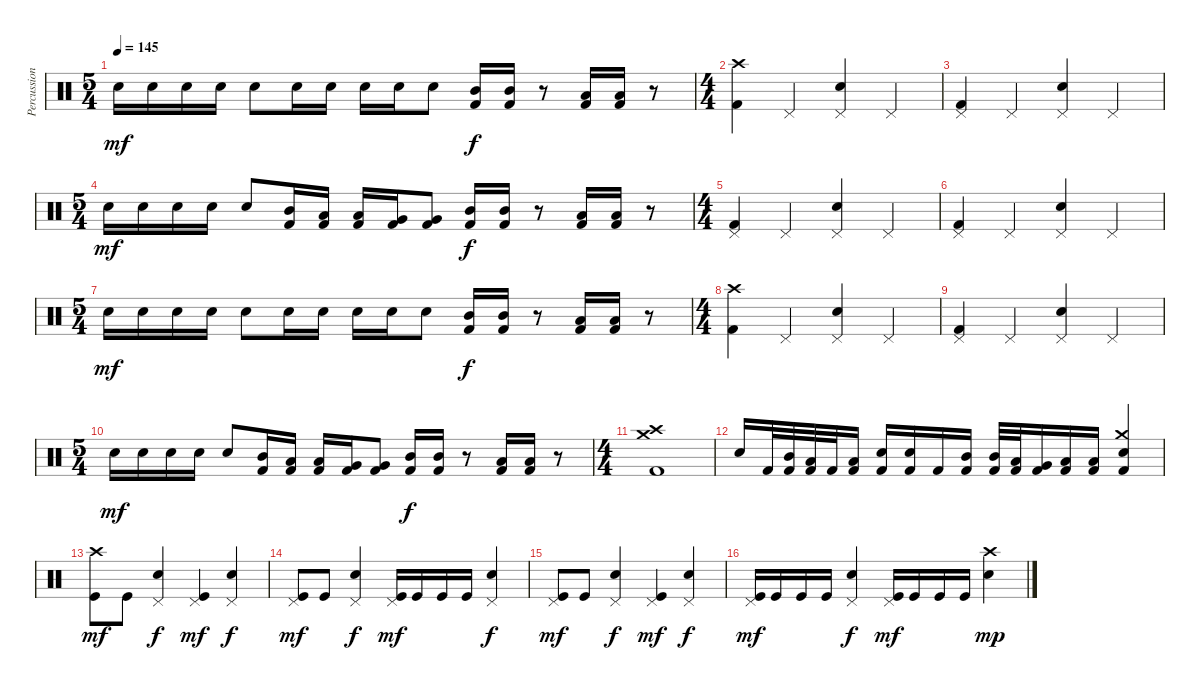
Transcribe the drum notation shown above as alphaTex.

\track ("Percussion" "Percussion") {instrument percussion}
\staff {score}
\articulation defaults
\ts (5 4)
\tempo 145
\clef neutral
\ks c "Snare (hit) 2".16{dy mf} "Snare (hit) 2".16 "Snare (hit) 2".16 "Snare (hit) 2".16 "Snare (hit) 2".8 "Snare (hit) 2".16 "Snare (hit) 2".16 "Snare (hit) 2".16 "Snare (hit) 2".16 "Snare (hit) 2".8
("Kick (hit) 2" "Mid Tom (hit)").16{dy f} ("Kick (hit) 2" "Mid Tom (hit)").16 r.8 ("Kick (hit) 2" "Low Tom (hit)").16 ("Kick (hit) 2" "Low Tom (hit)").16 r.8 |
\ts (4 4)
("Crash high (hit)" "Kick (hit) 2").4 "Pedal Hi-Hat (hit)".4 ("Pedal Hi-Hat (hit)" "Snare (hit) 2").4 "Pedal Hi-Hat (hit)".4 |
("Pedal Hi-Hat (hit)" "Kick (hit) 2").4 "Pedal Hi-Hat (hit)".4 ("Pedal Hi-Hat (hit)" "Snare (hit) 2").4 "Pedal Hi-Hat (hit)".4 |
\ts (5 4)
"Snare (hit) 2".16{dy mf} "Snare (hit) 2".16 "Snare (hit) 2".16 "Snare (hit) 2".16 "Snare (hit) 2".8 ("Kick (hit) 2" "Mid Tom (hit)").16 ("Kick (hit) 2" "Low Tom (hit)").16 ("Kick (hit) 2" "Low Tom (hit)").16 ("Kick (hit) 2" "Very Low Tom (hit)").16 ("Kick (hit) 2" "Very Low Tom (hit)").8 ("Kick (hit) 2" "Mid Tom (hit)").16{dy f} ("Kick (hit) 2" "Mid Tom (hit)").16 r.8 ("Kick (hit) 2" "Low Tom (hit)").16 ("Kick (hit) 2" "Low Tom (hit)").16 r.8 |
\ts (4 4)
("Pedal Hi-Hat (hit)" "Kick (hit) 2").4 "Pedal Hi-Hat (hit)".4 ("Pedal Hi-Hat (hit)" "Snare (hit) 2").4 "Pedal Hi-Hat (hit)".4 |
("Pedal Hi-Hat (hit)" "Kick (hit) 2").4 "Pedal Hi-Hat (hit)".4 ("Pedal Hi-Hat (hit)" "Snare (hit) 2").4 "Pedal Hi-Hat (hit)".4 |
\ts (5 4)
"Snare (hit) 2".16{dy mf} "Snare (hit) 2".16 "Snare (hit) 2".16 "Snare (hit) 2".16 "Snare (hit) 2".8 "Snare (hit) 2".16 "Snare (hit) 2".16 "Snare (hit) 2".16 "Snare (hit) 2".16 "Snare (hit) 2".8 ("Kick (hit) 2" "Mid Tom (hit)").16{dy f} ("Kick (hit) 2" "Mid Tom (hit)").16 r.8 ("Kick (hit) 2" "Low Tom (hit)").16 ("Kick (hit) 2" "Low Tom (hit)").16 r.8 |
\ts (4 4)
("Crash high (hit)" "Kick (hit) 2").4 "Pedal Hi-Hat (hit)".4 ("Pedal Hi-Hat (hit)" "Snare (hit) 2").4 "Pedal Hi-Hat (hit)".4 |
("Pedal Hi-Hat (hit)" "Kick (hit) 2").4 "Pedal Hi-Hat (hit)".4 ("Pedal Hi-Hat (hit)" "Snare (hit) 2").4 "Pedal Hi-Hat (hit)".4 |
\ts (5 4)
"Snare (hit) 2".16{dy mf} "Snare (hit) 2".16 "Snare (hit) 2".16 "Snare (hit) 2".16 "Snare (hit) 2".8 ("Kick (hit) 2" "Mid Tom (hit)").16 ("Kick (hit) 2" "Low Tom (hit)").16 ("Kick (hit) 2" "Low Tom (hit)").16 ("Kick (hit) 2" "Very Low Tom (hit)").16 ("Kick (hit) 2" "Very Low Tom (hit)").8 ("Kick (hit) 2" "Mid Tom (hit)").16{dy f} ("Kick (hit) 2" "Mid Tom (hit)").16 r.8 ("Kick (hit) 2" "Low Tom (hit)").16 ("Kick (hit) 2" "Low Tom (hit)").16 r.8 |
\ts (4 4)
("Crash high (hit)" "Crash medium (hit)" "Kick (hit) 2").1 |
"Electric Snare (hit)".16 "Kick (hit) 2".32 ("Kick (hit) 2" "Mid Tom (hit)").32 ("Kick (hit) 2" "Low Tom (hit)").32 "Kick (hit) 2".32 ("Kick (hit) 2" "Low Floor Tom (hit)").16 ("Kick (hit) 2" "Electric Snare (hit)").16 ("Kick (hit) 2" "Electric Snare (hit)").16 "Kick (hit) 2".16 ("Kick (hit) 2" "Mid Tom (hit)").16 ("Kick (hit) 2" "Mid Tom (hit)").32 ("Kick (hit) 2" "Low Tom (hit)").32 ("Kick (hit) 2" "Very Low Tom (hit)").16 ("Kick (hit) 2" "Low Floor Tom (hit)").16 ("Kick (hit) 2" "Low Floor Tom (hit)").16 ("Crash medium (hit)" "Kick (hit) 2" "Electric Snare (hit)").4 |
("Crash high (hit)" "Kick (hit)").8{dy mf} "Kick (hit)".8 ("Pedal Hi-Hat (hit)" "Electric Snare (hit)").4{dy f} ("Pedal Hi-Hat (hit)" "Kick (hit)").4{dy mf} ("Pedal Hi-Hat (hit)" "Electric Snare (hit)").4{dy f} |
("Pedal Hi-Hat (hit)" "Kick (hit)").8{dy mf} "Kick (hit)".8 ("Pedal Hi-Hat (hit)" "Electric Snare (hit)").4{dy f} ("Pedal Hi-Hat (hit)" "Kick (hit)").16{dy mf} "Kick (hit)".16 "Kick (hit)".16 "Kick (hit)".16 ("Pedal Hi-Hat (hit)" "Electric Snare (hit)").4{dy f} |
("Pedal Hi-Hat (hit)" "Kick (hit)").8{dy mf} "Kick (hit)".8 ("Pedal Hi-Hat (hit)" "Electric Snare (hit)").4{dy f} ("Pedal Hi-Hat (hit)" "Kick (hit)").4{dy mf} ("Pedal Hi-Hat (hit)" "Electric Snare (hit)").4{dy f} |
("Pedal Hi-Hat (hit)" "Kick (hit)").16{dy mf} "Kick (hit)".16 "Kick (hit)".16 "Kick (hit)".16 ("Pedal Hi-Hat (hit)" "Electric Snare (hit)").4{dy f} ("Pedal Hi-Hat (hit)" "Kick (hit)").16{dy mf} "Kick (hit)".16 "Kick (hit)".16 "Kick (hit)".16 ("Crash high (hit)" "Electric Snare (hit)").4{dy mp}
